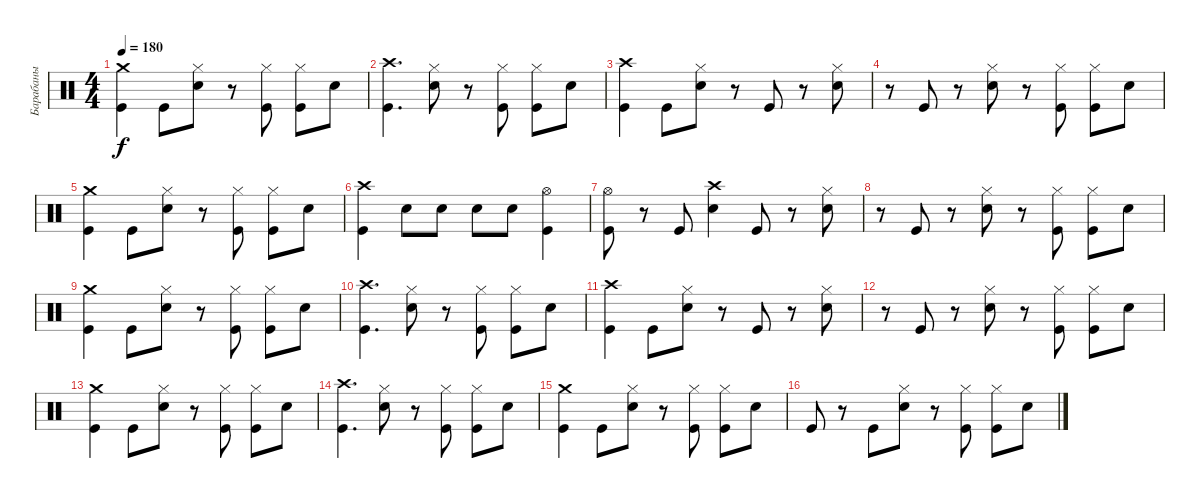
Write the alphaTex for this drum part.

\track ("Барабаны" "Барабаны") {instrument percussion}
\staff {score}
\articulation defaults
\ts (4 4)
\tempo 180
\clef neutral
\ks c
("Crash medium (hit)" "Kick (hit)").4{dy f} "Kick (hit)".8 ("Hi-Hat (closed)" "Electric Snare (hit)").8 r.8 ("Hi-Hat (closed)" "Kick (hit)").8 ("Hi-Hat (closed)" "Kick (hit)").8 "Electric Snare (hit)".8 |
("Crash high (hit)" "Kick (hit)").4{d} ("Hi-Hat (closed)" "Electric Snare (hit)").8 r.8 ("Kick (hit)" "Hi-Hat (closed)").8 ("Kick (hit)" "Hi-Hat (closed)").8 "Electric Snare (hit)".8 |
("Crash high (hit)" "Kick (hit)").4 "Kick (hit)".8 ("Electric Snare (hit)" "Hi-Hat (closed)").8 r.8 "Kick (hit)".8 r.8 ("Electric Snare (hit)" "Hi-Hat (closed)").8 |
r.8 "Kick (hit)".8 r.8 ("Hi-Hat (closed)" "Electric Snare (hit)").8 r.8 ("Kick (hit)" "Hi-Hat (closed)").8 ("Hi-Hat (closed)" "Kick (hit)").8 "Electric Snare (hit)".8 |
("Crash medium (hit)" "Kick (hit)").4 "Kick (hit)".8 ("Hi-Hat (closed)" "Electric Snare (hit)").8 r.8 ("Kick (hit)" "Hi-Hat (closed)").8 ("Hi-Hat (closed)" "Kick (hit)").8 "Electric Snare (hit)".8 |
("Kick (hit)" "Crash high (hit)").4 "Electric Snare (hit)".8 "Electric Snare (hit)".8 "Electric Snare (hit)".8 "Electric Snare (hit)".8 ("Hi-Hat (open)" "Kick (hit)").4 |
("Hi-Hat (open)" "Kick (hit)").8 r.8 "Kick (hit)".8 ("Crash high (hit)" "Electric Snare (hit)").4 "Kick (hit)".8 r.8 ("Electric Snare (hit)" "Hi-Hat (closed)").8 |
r.8 "Kick (hit)".8 r.8 ("Hi-Hat (closed)" "Electric Snare (hit)").8 r.8 ("Kick (hit)" "Hi-Hat (closed)").8 ("Kick (hit)" "Hi-Hat (closed)").8 "Electric Snare (hit)".8 |
("Crash medium (hit)" "Kick (hit)").4 "Kick (hit)".8 ("Hi-Hat (closed)" "Electric Snare (hit)").8 r.8 ("Hi-Hat (closed)" "Kick (hit)").8 ("Hi-Hat (closed)" "Kick (hit)").8 "Electric Snare (hit)".8 |
("Kick (hit)" "Crash high (hit)").4{d} ("Hi-Hat (closed)" "Electric Snare (hit)").8 r.8 ("Kick (hit)" "Hi-Hat (closed)").8 ("Hi-Hat (closed)" "Kick (hit)").8 "Electric Snare (hit)".8 |
("Crash high (hit)" "Kick (hit)").4 "Kick (hit)".8 ("Hi-Hat (closed)" "Electric Snare (hit)").8 r.8 "Kick (hit)".8 r.8 ("Hi-Hat (closed)" "Electric Snare (hit)").8 |
r.8 "Kick (hit)".8 r.8 ("Electric Snare (hit)" "Hi-Hat (closed)").8 r.8 ("Hi-Hat (closed)" "Kick (hit)").8 ("Kick (hit)" "Hi-Hat (closed)").8 "Electric Snare (hit)".8 |
("Kick (hit)" "Crash medium (hit)").4 "Kick (hit)".8 ("Hi-Hat (closed)" "Electric Snare (hit)").8 r.8 ("Kick (hit)" "Hi-Hat (closed)").8 ("Hi-Hat (closed)" "Kick (hit)").8 "Electric Snare (hit)".8 |
("Kick (hit)" "Crash high (hit)").4{d} ("Hi-Hat (closed)" "Electric Snare (hit)").8 r.8 ("Hi-Hat (closed)" "Kick (hit)").8 ("Hi-Hat (closed)" "Kick (hit)").8 "Electric Snare (hit)".8 |
("Crash medium (hit)" "Kick (hit)").4 "Kick (hit)".8 ("Hi-Hat (closed)" "Electric Snare (hit)").8 r.8 ("Kick (hit)" "Hi-Hat (closed)").8 ("Hi-Hat (closed)" "Kick (hit)").8 "Electric Snare (hit)".8 |
"Kick (hit)".8 r.8 "Kick (hit)".8 ("Hi-Hat (closed)" "Electric Snare (hit)").8 r.8 ("Kick (hit)" "Hi-Hat (closed)").8 ("Kick (hit)" "Hi-Hat (closed)").8 "Electric Snare (hit)".8
